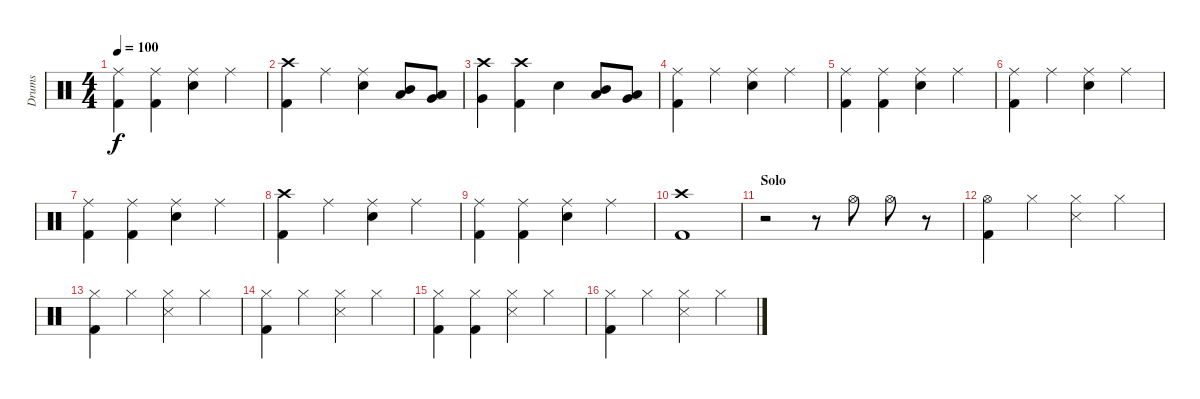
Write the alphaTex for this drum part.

\track ("Drums" "Drums") {instrument percussion}
\staff {score}
\articulation defaults
\ts (4 4)
\tempo 100
\clef neutral
\ks c
("Ride (middle)" "Kick (hit) 2").4{dy f} ("Ride (middle)" "Kick (hit) 2").4 ("Ride (middle)" "Snare (hit) 2").4 "Ride (middle)".4 |
("Crash high (hit)" "Kick (hit) 2").4 "Ride (middle)".4 ("Ride (middle)" "Snare (hit) 2").4 ("Low Tom (hit)" "Mid Tom (hit)").8 ("Very Low Tom (hit)" "Low Tom (hit)").8 |
("Crash high (hit)" "Very Low Tom (hit)").4 ("Crash high (hit)" "Kick (hit) 2").4 "Snare (hit) 2".4 ("Low Tom (hit)" "Mid Tom (hit)").8 ("Very Low Tom (hit)" "Low Tom (hit)").8 |
("Ride (middle)" "Kick (hit) 2").4 "Ride (middle)".4 ("Ride (middle)" "Snare (hit) 2").4 "Ride (middle)".4 |
("Ride (middle)" "Kick (hit) 2").4 ("Ride (middle)" "Kick (hit) 2").4 ("Ride (middle)" "Snare (hit) 2").4 "Ride (middle)".4 |
("Ride (middle)" "Kick (hit) 2").4 "Ride (middle)".4 ("Ride (middle)" "Snare (hit) 2").4 "Ride (middle)".4 |
("Ride (middle)" "Kick (hit) 2").4 ("Ride (middle)" "Kick (hit) 2").4 ("Ride (middle)" "Snare (hit) 2").4 "Ride (middle)".4 |
("Crash high (hit)" "Kick (hit) 2").4 "Ride (middle)".4 ("Ride (middle)" "Snare (hit) 2").4 "Ride (middle)".4 |
("Ride (middle)" "Kick (hit) 2").4 ("Ride (middle)" "Kick (hit) 2").4 ("Ride (middle)" "Snare (hit) 2").4 "Ride (middle)".4 |
("Crash high (hit)" "Kick (hit) 2").1 |
\section ("" "Solo")
r.2 r.8 "Hi-Hat (open)".8 "Hi-Hat (open)".8 r.8 |
("Hi-Hat (open)" "Kick (hit) 2").4 "Hi-Hat (closed)".4 ("Hi-Hat (closed)" "Snare (side stick) 3").4 "Hi-Hat (closed)".4 |
("Hi-Hat (closed)" "Kick (hit) 2").4 "Hi-Hat (closed)".4 ("Hi-Hat (closed)" "Snare (side stick) 3").4 "Hi-Hat (closed)".4 |
("Hi-Hat (closed)" "Kick (hit) 2").4 "Hi-Hat (closed)".4 ("Hi-Hat (closed)" "Snare (side stick) 3").4 "Hi-Hat (closed)".4 |
("Hi-Hat (closed)" "Kick (hit) 2").4 ("Hi-Hat (closed)" "Kick (hit) 2").4 ("Hi-Hat (closed)" "Snare (side stick) 3").4 "Hi-Hat (closed)".4 |
("Hi-Hat (closed)" "Kick (hit) 2").4 "Hi-Hat (closed)".4 ("Hi-Hat (closed)" "Snare (side stick) 3").4 "Hi-Hat (closed)".4
